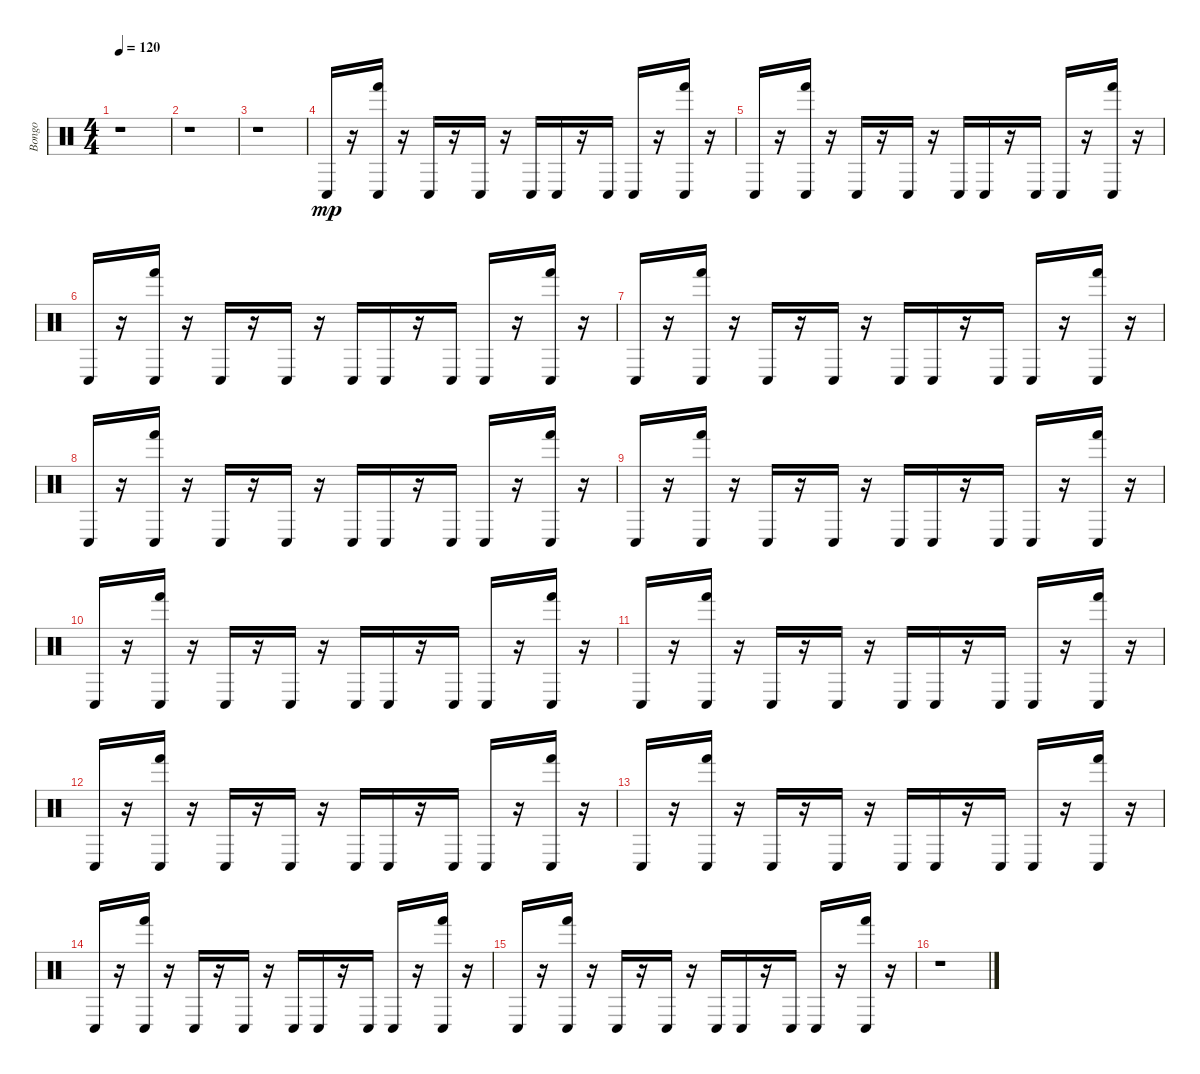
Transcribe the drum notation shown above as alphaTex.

\track ("Bongo" "Bongo") {instrument percussion}
\staff {score}
\articulation defaults
\ts (4 4)
\tempo 120
\clef neutral
\ks c
r.1{dy f} |
r.1 |
r.1 |
"Conga low (hit)".16{dy mp} r.16 ("Conga low (hit)" "Hand (hit)").16 r.16 "Conga low (hit)".16 r.16 "Conga low (hit)".16 r.16 "Conga low (hit)".16 "Conga low (hit)".16 r.16 "Conga low (hit)".16 "Conga low (hit)".16 r.16 ("Conga low (hit)" "Hand (hit)").16 r.16 |
"Conga low (hit)".16 r.16 ("Conga low (hit)" "Hand (hit)").16 r.16 "Conga low (hit)".16 r.16 "Conga low (hit)".16 r.16 "Conga low (hit)".16 "Conga low (hit)".16 r.16 "Conga low (hit)".16 "Conga low (hit)".16 r.16 ("Conga low (hit)" "Hand (hit)").16 r.16 |
"Conga low (hit)".16 r.16 ("Conga low (hit)" "Hand (hit)").16 r.16 "Conga low (hit)".16 r.16 "Conga low (hit)".16 r.16 "Conga low (hit)".16 "Conga low (hit)".16 r.16 "Conga low (hit)".16 "Conga low (hit)".16 r.16 ("Conga low (hit)" "Hand (hit)").16 r.16 |
"Conga low (hit)".16 r.16 ("Conga low (hit)" "Hand (hit)").16 r.16 "Conga low (hit)".16 r.16 "Conga low (hit)".16 r.16 "Conga low (hit)".16 "Conga low (hit)".16 r.16 "Conga low (hit)".16 "Conga low (hit)".16 r.16 ("Conga low (hit)" "Hand (hit)").16 r.16 |
"Conga low (hit)".16 r.16 ("Conga low (hit)" "Hand (hit)").16 r.16 "Conga low (hit)".16 r.16 "Conga low (hit)".16 r.16 "Conga low (hit)".16 "Conga low (hit)".16 r.16 "Conga low (hit)".16 "Conga low (hit)".16 r.16 ("Conga low (hit)" "Hand (hit)").16 r.16 |
"Conga low (hit)".16 r.16 ("Conga low (hit)" "Hand (hit)").16 r.16 "Conga low (hit)".16 r.16 "Conga low (hit)".16 r.16 "Conga low (hit)".16 "Conga low (hit)".16 r.16 "Conga low (hit)".16 "Conga low (hit)".16 r.16 ("Conga low (hit)" "Hand (hit)").16 r.16 |
"Conga low (hit)".16 r.16 ("Conga low (hit)" "Hand (hit)").16 r.16 "Conga low (hit)".16 r.16 "Conga low (hit)".16 r.16 "Conga low (hit)".16 "Conga low (hit)".16 r.16 "Conga low (hit)".16 "Conga low (hit)".16 r.16 ("Conga low (hit)" "Hand (hit)").16 r.16 |
"Conga low (hit)".16 r.16 ("Conga low (hit)" "Hand (hit)").16 r.16 "Conga low (hit)".16 r.16 "Conga low (hit)".16 r.16 "Conga low (hit)".16 "Conga low (hit)".16 r.16 "Conga low (hit)".16 "Conga low (hit)".16 r.16 ("Conga low (hit)" "Hand (hit)").16 r.16 |
"Conga low (hit)".16 r.16 ("Conga low (hit)" "Hand (hit)").16 r.16 "Conga low (hit)".16 r.16 "Conga low (hit)".16 r.16 "Conga low (hit)".16 "Conga low (hit)".16 r.16 "Conga low (hit)".16 "Conga low (hit)".16 r.16 ("Conga low (hit)" "Hand (hit)").16 r.16 |
"Conga low (hit)".16 r.16 ("Conga low (hit)" "Hand (hit)").16 r.16 "Conga low (hit)".16 r.16 "Conga low (hit)".16 r.16 "Conga low (hit)".16 "Conga low (hit)".16 r.16 "Conga low (hit)".16 "Conga low (hit)".16 r.16 ("Conga low (hit)" "Hand (hit)").16 r.16 |
"Conga low (hit)".16 r.16 ("Conga low (hit)" "Hand (hit)").16 r.16 "Conga low (hit)".16 r.16 "Conga low (hit)".16 r.16 "Conga low (hit)".16 "Conga low (hit)".16 r.16 "Conga low (hit)".16 "Conga low (hit)".16 r.16 ("Conga low (hit)" "Hand (hit)").16 r.16 |
"Conga low (hit)".16 r.16 ("Conga low (hit)" "Hand (hit)").16 r.16 "Conga low (hit)".16 r.16 "Conga low (hit)".16 r.16 "Conga low (hit)".16 "Conga low (hit)".16 r.16 "Conga low (hit)".16 "Conga low (hit)".16 r.16 ("Conga low (hit)" "Hand (hit)").16 r.16 |
r.1
